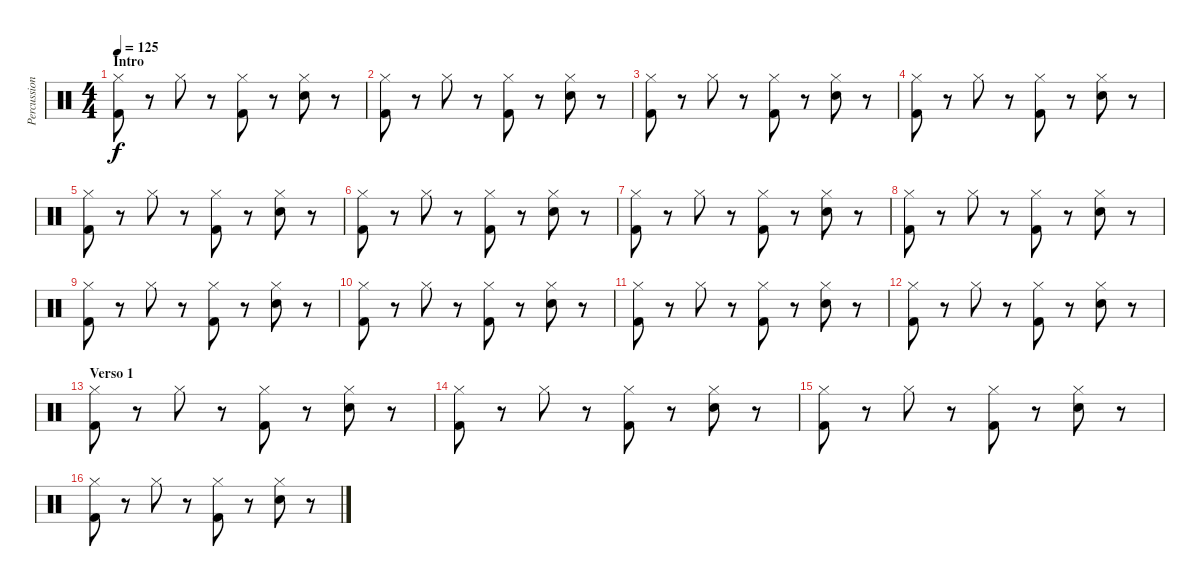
\track ("Percussion" "Percussion") {instrument percussion}
\staff {score}
\articulation defaults
\ts (4 4)
\section ("" "Intro")
\tempo 125
\clef neutral
\ks c
("Kick (hit) 2" "Hi-Hat (closed)").8{dy f} r.8 "Hi-Hat (closed)".8 r.8 ("Kick (hit) 2" "Hi-Hat (closed)").8 r.8 ("Electric Snare (hit)" "Hi-Hat (closed)").8 r.8 |
("Kick (hit) 2" "Hi-Hat (closed)").8 r.8 "Hi-Hat (closed)".8 r.8 ("Kick (hit) 2" "Hi-Hat (closed)").8 r.8 ("Electric Snare (hit)" "Hi-Hat (closed)").8 r.8 |
("Kick (hit) 2" "Hi-Hat (closed)").8 r.8 "Hi-Hat (closed)".8 r.8 ("Kick (hit) 2" "Hi-Hat (closed)").8 r.8 ("Electric Snare (hit)" "Hi-Hat (closed)").8 r.8 |
("Kick (hit) 2" "Hi-Hat (closed)").8 r.8 "Hi-Hat (closed)".8 r.8 ("Kick (hit) 2" "Hi-Hat (closed)").8 r.8 ("Electric Snare (hit)" "Hi-Hat (closed)").8 r.8 |
("Kick (hit) 2" "Hi-Hat (closed)").8 r.8 "Hi-Hat (closed)".8 r.8 ("Kick (hit) 2" "Hi-Hat (closed)").8 r.8 ("Electric Snare (hit)" "Hi-Hat (closed)").8 r.8 |
("Kick (hit) 2" "Hi-Hat (closed)").8 r.8 "Hi-Hat (closed)".8 r.8 ("Kick (hit) 2" "Hi-Hat (closed)").8 r.8 ("Electric Snare (hit)" "Hi-Hat (closed)").8 r.8 |
("Kick (hit) 2" "Hi-Hat (closed)").8 r.8 "Hi-Hat (closed)".8 r.8 ("Kick (hit) 2" "Hi-Hat (closed)").8 r.8 ("Electric Snare (hit)" "Hi-Hat (closed)").8 r.8 |
("Kick (hit) 2" "Hi-Hat (closed)").8 r.8 "Hi-Hat (closed)".8 r.8 ("Kick (hit) 2" "Hi-Hat (closed)").8 r.8 ("Electric Snare (hit)" "Hi-Hat (closed)").8 r.8 |
("Kick (hit) 2" "Hi-Hat (closed)").8 r.8 "Hi-Hat (closed)".8 r.8 ("Kick (hit) 2" "Hi-Hat (closed)").8 r.8 ("Electric Snare (hit)" "Hi-Hat (closed)").8 r.8 |
("Kick (hit) 2" "Hi-Hat (closed)").8 r.8 "Hi-Hat (closed)".8 r.8 ("Kick (hit) 2" "Hi-Hat (closed)").8 r.8 ("Electric Snare (hit)" "Hi-Hat (closed)").8 r.8 |
("Kick (hit) 2" "Hi-Hat (closed)").8 r.8 "Hi-Hat (closed)".8 r.8 ("Kick (hit) 2" "Hi-Hat (closed)").8 r.8 ("Electric Snare (hit)" "Hi-Hat (closed)").8 r.8 |
("Kick (hit) 2" "Hi-Hat (closed)").8 r.8 "Hi-Hat (closed)".8 r.8 ("Kick (hit) 2" "Hi-Hat (closed)").8 r.8 ("Electric Snare (hit)" "Hi-Hat (closed)").8 r.8 |
\section ("" "Verso 1")
("Kick (hit) 2" "Hi-Hat (closed)").8 r.8 "Hi-Hat (closed)".8 r.8 ("Kick (hit) 2" "Hi-Hat (closed)").8 r.8 ("Electric Snare (hit)" "Hi-Hat (closed)").8 r.8 |
("Kick (hit) 2" "Hi-Hat (closed)").8 r.8 "Hi-Hat (closed)".8 r.8 ("Kick (hit) 2" "Hi-Hat (closed)").8 r.8 ("Electric Snare (hit)" "Hi-Hat (closed)").8 r.8 |
("Kick (hit) 2" "Hi-Hat (closed)").8 r.8 "Hi-Hat (closed)".8 r.8 ("Kick (hit) 2" "Hi-Hat (closed)").8 r.8 ("Electric Snare (hit)" "Hi-Hat (closed)").8 r.8 |
("Kick (hit) 2" "Hi-Hat (closed)").8 r.8 "Hi-Hat (closed)".8 r.8 ("Kick (hit) 2" "Hi-Hat (closed)").8 r.8 ("Electric Snare (hit)" "Hi-Hat (closed)").8 r.8
